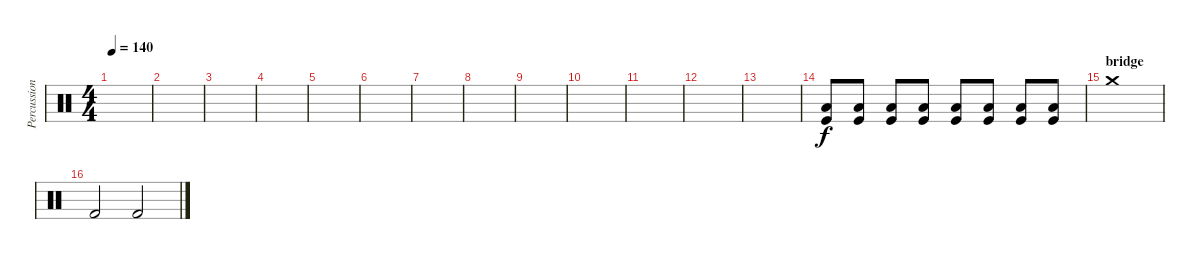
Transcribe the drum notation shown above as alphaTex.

\track ("Percussion" "Percussion") {instrument percussion}
\staff {score}
\articulation defaults
\ts (4 4)
\tempo 140
\clef neutral
\ks c
|
|
|
|
|
|
|
|
|
|
|
|
|
("Kick (hit)" "Low Floor Tom (hit)").8{volume 7} ("Kick (hit)" "Low Floor Tom (hit)").8 ("Kick (hit)" "Low Floor Tom (hit)").8 ("Kick (hit)" "Low Floor Tom (hit)").8 ("Kick (hit)" "Low Floor Tom (hit)").8 ("Kick (hit)" "Low Floor Tom (hit)").8 ("Kick (hit)" "Low Floor Tom (hit)").8 ("Kick (hit)" "Low Floor Tom (hit)").8 |
\section ("" "bridge")
"Crash medium (hit)".1 |
"Kick (hit) 2".2 "Kick (hit) 2".2
